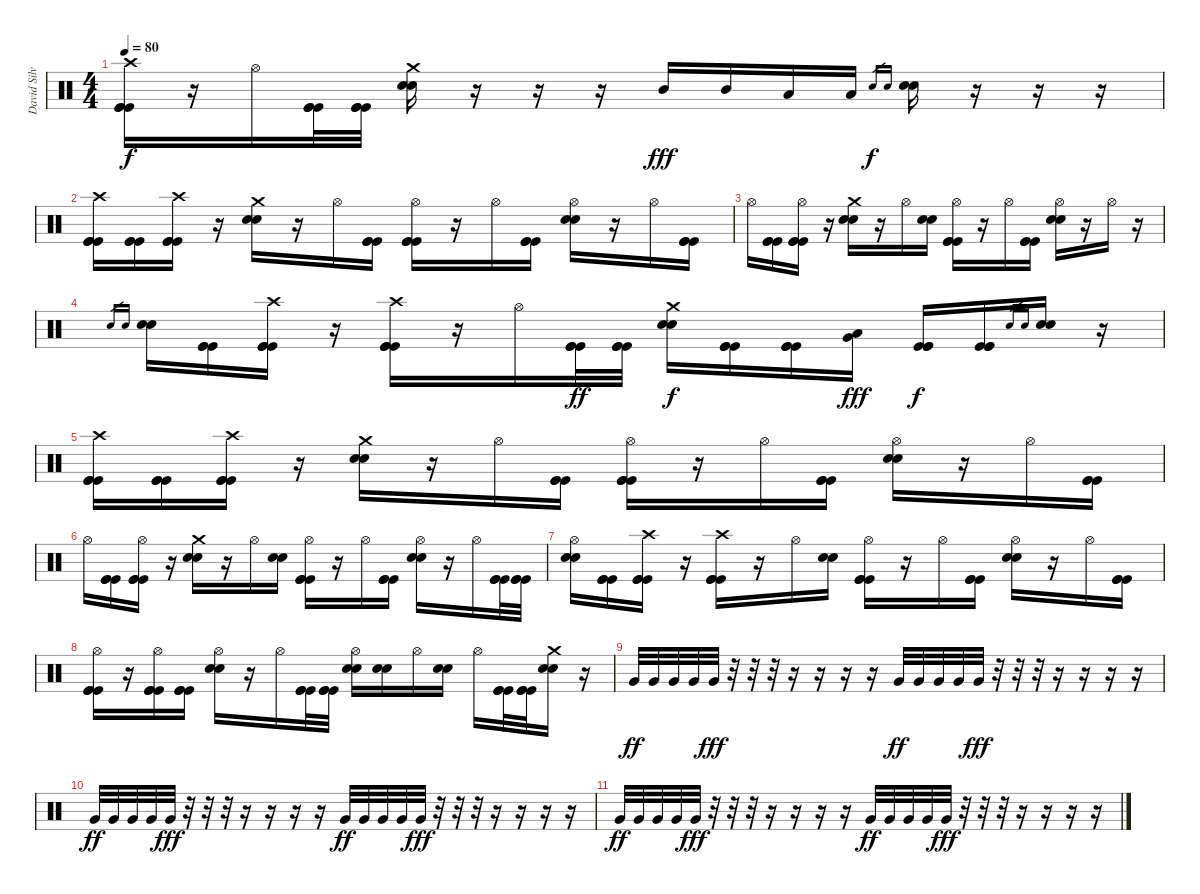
\track ("David Silveria (Drums)" "David Silv") {instrument percussion}
\staff {score}
\articulation defaults
\ts (4 4)
\tempo 80
\clef neutral
\ks c
("Crash high (hit)" "Kick (hit)" "Kick (hit)" "Kick (hit)").16{dy f} r.16 "Hi-Hat (open)".16 ("Kick (hit)" "Kick (hit)" "Kick (hit)").32 ("Kick (hit)" "Kick (hit)" "Kick (hit)").32 ("Crash medium (hit)" "Snare (hit) 2" "Snare (hit) 2").16 r.16 r.16 r.16 "Mid Tom (hit)".16{dy fff} "Mid Tom (hit)".16 "Low Tom (hit)".16 "Low Tom (hit)".16 "Snare (hit) 2".16{gr dy f} "Snare (hit) 2".16{gr} ("Snare (hit) 2" "Snare (hit) 2").16 r.16 r.16 r.16 |
("Crash high (hit)" "Kick (hit)" "Kick (hit)" "Kick (hit)").16 ("Kick (hit)" "Kick (hit)" "Kick (hit)").16 ("Crash high (hit)" "Kick (hit)" "Kick (hit)" "Kick (hit)").16 r.16 ("Crash medium (hit)" "Snare (hit) 2" "Snare (hit) 2").16 r.16 "Hi-Hat (open)".16 ("Kick (hit)" "Kick (hit)" "Kick (hit)").16 ("Hi-Hat (open)" "Kick (hit)" "Kick (hit)" "Kick (hit)").16 r.16 "Hi-Hat (open)".16 ("Kick (hit)" "Kick (hit)" "Kick (hit)").16 ("Hi-Hat (open)" "Snare (hit) 2" "Snare (hit) 2").16 r.16 "Hi-Hat (open)".16 ("Kick (hit)" "Kick (hit)" "Kick (hit)").16 |
"Hi-Hat (open)".16 ("Kick (hit)" "Kick (hit)" "Kick (hit)").16 ("Hi-Hat (open)" "Kick (hit)" "Kick (hit)" "Kick (hit)").16 r.16 ("Crash medium (hit)" "Snare (hit) 2" "Snare (hit) 2").16 r.16 "Hi-Hat (open)".16 ("Snare (hit) 2" "Snare (hit) 2").16 ("Hi-Hat (open)" "Kick (hit)" "Kick (hit)" "Kick (hit)").16 r.16 "Hi-Hat (open)".16 ("Kick (hit)" "Kick (hit)" "Kick (hit)").16 ("Hi-Hat (open)" "Snare (hit) 2" "Snare (hit) 2").16 r.16 "Hi-Hat (open)".16 r.16 |
"Snare (hit) 2".16{gr} "Snare (hit) 2".16{gr} ("Snare (hit) 2" "Snare (hit) 2").16 ("Kick (hit)" "Kick (hit)" "Kick (hit)").16 ("Crash high (hit)" "Kick (hit)" "Kick (hit)" "Kick (hit)").16 r.16 ("Crash high (hit)" "Kick (hit)" "Kick (hit)" "Kick (hit)").16 r.16 "Hi-Hat (open)".16 ("Kick (hit)" "Kick (hit)" "Kick (hit)").32{dy ff} ("Kick (hit)" "Kick (hit)" "Kick (hit)").32 ("Crash medium (hit)" "Snare (hit) 2" "Snare (hit) 2").16{dy f} ("Kick (hit)" "Kick (hit)" "Kick (hit)").16 ("Kick (hit)" "Kick (hit)" "Kick (hit)").16 ("Low Tom (hit)" "Very Low Tom (hit)").16{dy fff} ("Kick (hit)" "Kick (hit)" "Kick (hit)").16{dy f} ("Kick (hit)" "Kick (hit)" "Kick (hit)").16 "Snare (hit) 2".16{gr} "Snare (hit) 2".16{gr} ("Snare (hit) 2" "Snare (hit) 2").16 r.16 |
("Crash high (hit)" "Kick (hit)" "Kick (hit)" "Kick (hit)").16 ("Kick (hit)" "Kick (hit)" "Kick (hit)").16 ("Crash high (hit)" "Kick (hit)" "Kick (hit)" "Kick (hit)").16 r.16 ("Crash medium (hit)" "Snare (hit) 2" "Snare (hit) 2").16 r.16 "Hi-Hat (open)".16 ("Kick (hit)" "Kick (hit)" "Kick (hit)").16 ("Hi-Hat (open)" "Kick (hit)" "Kick (hit)" "Kick (hit)").16 r.16 "Hi-Hat (open)".16 ("Kick (hit)" "Kick (hit)" "Kick (hit)").16 ("Hi-Hat (open)" "Snare (hit) 2" "Snare (hit) 2").16 r.16 "Hi-Hat (open)".16 ("Kick (hit)" "Kick (hit)" "Kick (hit)").16 |
"Hi-Hat (open)".16 ("Kick (hit)" "Kick (hit)" "Kick (hit)").16 ("Hi-Hat (open)" "Kick (hit)" "Kick (hit)" "Kick (hit)").16 r.16 ("Crash medium (hit)" "Snare (hit) 2" "Snare (hit) 2").16 r.16 "Hi-Hat (open)".16 ("Snare (hit) 2" "Snare (hit) 2").16 ("Hi-Hat (open)" "Kick (hit)" "Kick (hit)" "Kick (hit)").16 r.16 "Hi-Hat (open)".16 ("Kick (hit)" "Kick (hit)" "Kick (hit)").16 ("Hi-Hat (open)" "Snare (hit) 2" "Snare (hit) 2").16 r.16 "Hi-Hat (open)".16 ("Kick (hit)" "Kick (hit)" "Kick (hit)").32 ("Kick (hit)" "Kick (hit)" "Kick (hit)").32 |
("Hi-Hat (open)" "Snare (hit) 2" "Snare (hit) 2").16 ("Kick (hit)" "Kick (hit)" "Kick (hit)").16 ("Crash high (hit)" "Kick (hit)" "Kick (hit)" "Kick (hit)").16 r.16 ("Crash high (hit)" "Kick (hit)" "Kick (hit)" "Kick (hit)").16 r.16 "Hi-Hat (open)".16 ("Snare (hit) 2" "Snare (hit) 2").16 ("Hi-Hat (open)" "Kick (hit)" "Kick (hit)" "Kick (hit)").16 r.16 "Hi-Hat (open)".16 ("Kick (hit)" "Kick (hit)" "Kick (hit)").16 ("Hi-Hat (open)" "Snare (hit) 2" "Snare (hit) 2").16 r.16 "Hi-Hat (open)".16 ("Kick (hit)" "Kick (hit)" "Kick (hit)").16 |
("Hi-Hat (open)" "Kick (hit)" "Kick (hit)" "Kick (hit)").16 r.16 ("Hi-Hat (open)" "Kick (hit)" "Kick (hit)" "Kick (hit)").16 ("Kick (hit)" "Kick (hit)" "Kick (hit)").16 ("Hi-Hat (open)" "Snare (hit) 2" "Snare (hit) 2").16 r.16 "Hi-Hat (open)".16 ("Kick (hit)" "Kick (hit)" "Kick (hit)").32 ("Kick (hit)" "Kick (hit)" "Kick (hit)").32 ("Hi-Hat (open)" "Snare (hit) 2" "Snare (hit) 2").16 ("Snare (hit) 2" "Snare (hit) 2").16 "Hi-Hat (open)".16 ("Snare (hit) 2" "Snare (hit) 2").16 "Hi-Hat (open)".16 ("Kick (hit)" "Kick (hit)" "Kick (hit)").32 ("Kick (hit)" "Kick (hit)" "Kick (hit)").32 ("Crash medium (hit)" "Snare (hit) 2" "Snare (hit) 2").16 r.16 |
"Very Low Tom (hit)".32{dy ff} "Very Low Tom (hit)".32 "Very Low Tom (hit)".32 "Very Low Tom (hit)".32 "Very Low Tom (hit)".32{dy fff} r.32 r.32 r.32 r.16 r.16 r.16 r.16 "Very Low Tom (hit)".32{dy ff} "Very Low Tom (hit)".32 "Very Low Tom (hit)".32 "Very Low Tom (hit)".32 "Very Low Tom (hit)".32{dy fff} r.32 r.32 r.32 r.16 r.16 r.16 r.16 |
"Very Low Tom (hit)".32{dy ff} "Very Low Tom (hit)".32 "Very Low Tom (hit)".32 "Very Low Tom (hit)".32 "Very Low Tom (hit)".32{dy fff} r.32 r.32 r.32 r.16 r.16 r.16 r.16 "Very Low Tom (hit)".32{dy ff} "Very Low Tom (hit)".32 "Very Low Tom (hit)".32 "Very Low Tom (hit)".32 "Very Low Tom (hit)".32{dy fff} r.32 r.32 r.32 r.16 r.16 r.16 r.16 |
"Very Low Tom (hit)".32{dy ff} "Very Low Tom (hit)".32 "Very Low Tom (hit)".32 "Very Low Tom (hit)".32 "Very Low Tom (hit)".32{dy fff} r.32 r.32 r.32 r.16 r.16 r.16 r.16 "Very Low Tom (hit)".32{dy ff} "Very Low Tom (hit)".32 "Very Low Tom (hit)".32 "Very Low Tom (hit)".32 "Very Low Tom (hit)".32{dy fff} r.32 r.32 r.32 r.16 r.16 r.16 r.16
